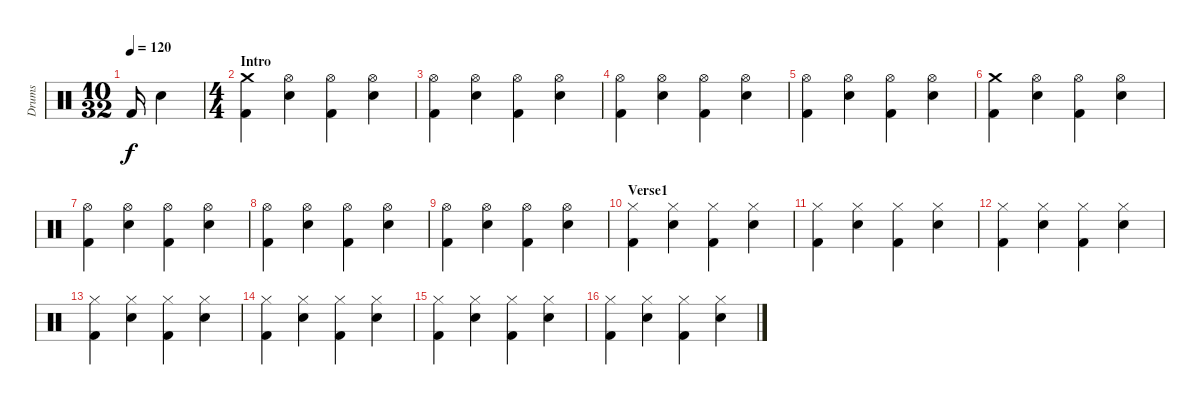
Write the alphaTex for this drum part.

\track ("Drums" "Drums") {instrument percussion}
\staff {score}
\articulation defaults
\ts (10 32)
\tempo 120
\clef neutral
\ks c "Kick (hit) 2".16{dy f} "Electric Snare (hit)".4
|
\ts (4 4)
\section ("" "Intro")
("Crash medium (hit)" "Kick (hit) 2").4 ("Hi-Hat (open)" "Electric Snare (hit)").4 ("Hi-Hat (open)" "Kick (hit) 2").4 ("Hi-Hat (open)" "Electric Snare (hit)").4 |
("Hi-Hat (open)" "Kick (hit) 2").4 ("Hi-Hat (open)" "Electric Snare (hit)").4 ("Hi-Hat (open)" "Kick (hit) 2").4 ("Hi-Hat (open)" "Electric Snare (hit)").4 |
("Hi-Hat (open)" "Kick (hit) 2").4 ("Hi-Hat (open)" "Electric Snare (hit)").4 ("Hi-Hat (open)" "Kick (hit) 2").4 ("Hi-Hat (open)" "Electric Snare (hit)").4 |
("Hi-Hat (open)" "Kick (hit) 2").4 ("Hi-Hat (open)" "Electric Snare (hit)").4 ("Hi-Hat (open)" "Kick (hit) 2").4 ("Hi-Hat (open)" "Electric Snare (hit)").4 |
("Crash medium (hit)" "Kick (hit) 2").4 ("Hi-Hat (open)" "Electric Snare (hit)").4 ("Hi-Hat (open)" "Kick (hit) 2").4 ("Hi-Hat (open)" "Electric Snare (hit)").4 |
("Hi-Hat (open)" "Kick (hit) 2").4 ("Hi-Hat (open)" "Electric Snare (hit)").4 ("Hi-Hat (open)" "Kick (hit) 2").4 ("Hi-Hat (open)" "Electric Snare (hit)").4 |
("Hi-Hat (open)" "Kick (hit) 2").4 ("Hi-Hat (open)" "Electric Snare (hit)").4 ("Hi-Hat (open)" "Kick (hit) 2").4 ("Hi-Hat (open)" "Electric Snare (hit)").4 |
("Hi-Hat (open)" "Kick (hit) 2").4 ("Hi-Hat (open)" "Electric Snare (hit)").4 ("Hi-Hat (open)" "Kick (hit) 2").4 ("Hi-Hat (open)" "Electric Snare (hit)").4 |
\section ("" "Verse1")
("Hi-Hat (closed)" "Kick (hit) 2").4 ("Hi-Hat (closed)" "Electric Snare (hit)").4 ("Hi-Hat (closed)" "Kick (hit) 2").4 ("Hi-Hat (closed)" "Electric Snare (hit)").4 |
("Hi-Hat (closed)" "Kick (hit) 2").4 ("Hi-Hat (closed)" "Electric Snare (hit)").4 ("Hi-Hat (closed)" "Kick (hit) 2").4 ("Hi-Hat (closed)" "Electric Snare (hit)").4 |
("Hi-Hat (closed)" "Kick (hit) 2").4 ("Hi-Hat (closed)" "Electric Snare (hit)").4 ("Hi-Hat (closed)" "Kick (hit) 2").4 ("Hi-Hat (closed)" "Electric Snare (hit)").4 |
("Hi-Hat (closed)" "Kick (hit) 2").4 ("Hi-Hat (closed)" "Electric Snare (hit)").4 ("Hi-Hat (closed)" "Kick (hit) 2").4 ("Hi-Hat (closed)" "Electric Snare (hit)").4 |
("Hi-Hat (closed)" "Kick (hit) 2").4 ("Hi-Hat (closed)" "Electric Snare (hit)").4 ("Hi-Hat (closed)" "Kick (hit) 2").4 ("Hi-Hat (closed)" "Electric Snare (hit)").4 |
("Hi-Hat (closed)" "Kick (hit) 2").4 ("Hi-Hat (closed)" "Electric Snare (hit)").4 ("Hi-Hat (closed)" "Kick (hit) 2").4 ("Hi-Hat (closed)" "Electric Snare (hit)").4 |
("Hi-Hat (closed)" "Kick (hit) 2").4 ("Hi-Hat (closed)" "Electric Snare (hit)").4 ("Hi-Hat (closed)" "Kick (hit) 2").4 ("Hi-Hat (closed)" "Electric Snare (hit)").4
